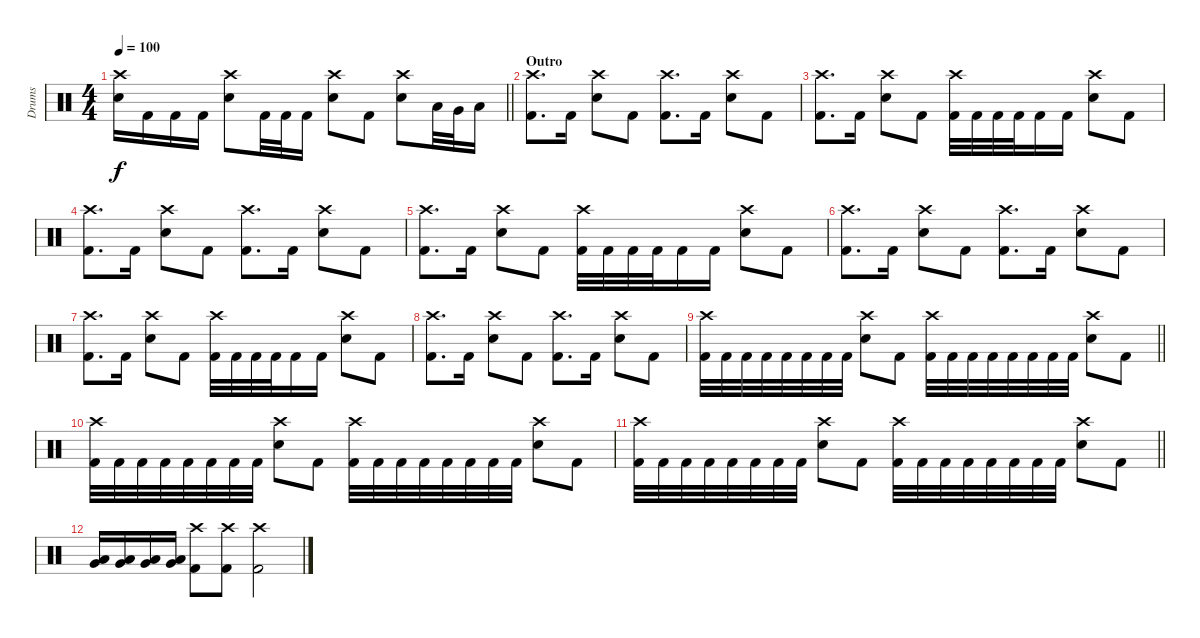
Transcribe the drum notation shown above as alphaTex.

\track ("Drums" "Drums") {instrument percussion}
\staff {score}
\articulation defaults
\ts (4 4)
\tempo 100
\clef neutral
\barLineRight lightlight
\ks c
("Crash high (hit)" "Snare (hit) 2").16{dy f} "Kick (hit) 2".16 "Kick (hit) 2".16 "Kick (hit) 2".16 ("Crash high (hit)" "Snare (hit) 2").8 "Kick (hit) 2".32 "Kick (hit) 2".32 "Kick (hit) 2".16 ("Crash high (hit)" "Snare (hit) 2").8 "Kick (hit) 2".8 ("Crash high (hit)" "Snare (hit) 2").8 "Low Tom (hit)".32 "Very Low Tom (hit)".32 "Low Floor Tom (hit)".16 |
\section ("" "Outro")
("Crash high (hit)" "Kick (hit) 2").8{d} "Kick (hit) 2".16 ("Crash high (hit)" "Snare (hit) 2").8 "Kick (hit) 2".8 ("Crash high (hit)" "Kick (hit) 2").8{d} "Kick (hit) 2".16 ("Crash high (hit)" "Snare (hit) 2").8 "Kick (hit) 2".8 |
("Crash high (hit)" "Kick (hit) 2").8{d} "Kick (hit) 2".16 ("Crash high (hit)" "Snare (hit) 2").8 "Kick (hit) 2".8 ("Crash high (hit)" "Kick (hit) 2").32 "Kick (hit) 2".32 "Kick (hit) 2".32 "Kick (hit) 2".32 "Kick (hit) 2".16 "Kick (hit) 2".16 ("Crash high (hit)" "Snare (hit) 2").8 "Kick (hit) 2".8 |
("Crash high (hit)" "Kick (hit) 2").8{d} "Kick (hit) 2".16 ("Crash high (hit)" "Snare (hit) 2").8 "Kick (hit) 2".8 ("Crash high (hit)" "Kick (hit) 2").8{d} "Kick (hit) 2".16 ("Crash high (hit)" "Snare (hit) 2").8 "Kick (hit) 2".8 |
("Crash high (hit)" "Kick (hit) 2").8{d} "Kick (hit) 2".16 ("Crash high (hit)" "Snare (hit) 2").8 "Kick (hit) 2".8 ("Crash high (hit)" "Kick (hit) 2").32 "Kick (hit) 2".32 "Kick (hit) 2".32 "Kick (hit) 2".32 "Kick (hit) 2".16 "Kick (hit) 2".16 ("Crash high (hit)" "Snare (hit) 2").8 "Kick (hit) 2".8 |
("Crash high (hit)" "Kick (hit) 2").8{d} "Kick (hit) 2".16 ("Crash high (hit)" "Snare (hit) 2").8 "Kick (hit) 2".8 ("Crash high (hit)" "Kick (hit) 2").8{d} "Kick (hit) 2".16 ("Crash high (hit)" "Snare (hit) 2").8 "Kick (hit) 2".8 |
("Crash high (hit)" "Kick (hit) 2").8{d} "Kick (hit) 2".16 ("Crash high (hit)" "Snare (hit) 2").8 "Kick (hit) 2".8 ("Crash high (hit)" "Kick (hit) 2").32 "Kick (hit) 2".32 "Kick (hit) 2".32 "Kick (hit) 2".32 "Kick (hit) 2".16 "Kick (hit) 2".16 ("Crash high (hit)" "Snare (hit) 2").8 "Kick (hit) 2".8 |
("Crash high (hit)" "Kick (hit) 2").8{d} "Kick (hit) 2".16 ("Crash high (hit)" "Snare (hit) 2").8 "Kick (hit) 2".8 ("Crash high (hit)" "Kick (hit) 2").8{d} "Kick (hit) 2".16 ("Crash high (hit)" "Snare (hit) 2").8 "Kick (hit) 2".8 |
\barLineRight lightlight
("Crash high (hit)" "Kick (hit) 2").32 "Kick (hit) 2".32 "Kick (hit) 2".32 "Kick (hit) 2".32 "Kick (hit) 2".32 "Kick (hit) 2".32 "Kick (hit) 2".32 "Kick (hit) 2".32 ("Crash high (hit)" "Snare (hit) 2").8 "Kick (hit) 2".8 ("Crash high (hit)" "Kick (hit) 2").32 "Kick (hit) 2".32 "Kick (hit) 2".32 "Kick (hit) 2".32 "Kick (hit) 2".32 "Kick (hit) 2".32 "Kick (hit) 2".32 "Kick (hit) 2".32 ("Crash high (hit)" "Snare (hit) 2").8 "Kick (hit) 2".8 |
("Crash high (hit)" "Kick (hit) 2").32 "Kick (hit) 2".32 "Kick (hit) 2".32 "Kick (hit) 2".32 "Kick (hit) 2".32 "Kick (hit) 2".32 "Kick (hit) 2".32 "Kick (hit) 2".32 ("Crash high (hit)" "Snare (hit) 2").8 "Kick (hit) 2".8 ("Crash high (hit)" "Kick (hit) 2").32 "Kick (hit) 2".32 "Kick (hit) 2".32 "Kick (hit) 2".32 "Kick (hit) 2".32 "Kick (hit) 2".32 "Kick (hit) 2".32 "Kick (hit) 2".32 ("Crash high (hit)" "Snare (hit) 2").8 "Kick (hit) 2".8 |
\barLineRight lightlight
("Crash high (hit)" "Kick (hit) 2").32 "Kick (hit) 2".32 "Kick (hit) 2".32 "Kick (hit) 2".32 "Kick (hit) 2".32 "Kick (hit) 2".32 "Kick (hit) 2".32 "Kick (hit) 2".32 ("Crash high (hit)" "Snare (hit) 2").8 "Kick (hit) 2".8 ("Crash high (hit)" "Kick (hit) 2").32 "Kick (hit) 2".32 "Kick (hit) 2".32 "Kick (hit) 2".32 "Kick (hit) 2".32 "Kick (hit) 2".32 "Kick (hit) 2".32 "Kick (hit) 2".32 ("Crash high (hit)" "Snare (hit) 2").8 "Kick (hit) 2".8 |
("Low Tom (hit)" "Very Low Tom (hit)").16 ("Low Tom (hit)" "Very Low Tom (hit)").16 ("Low Tom (hit)" "Very Low Tom (hit)").16 ("Low Tom (hit)" "Very Low Tom (hit)").16 ("Crash high (hit)" "Kick (hit) 2").8 ("Crash high (hit)" "Kick (hit) 2").8 ("Crash high (hit)" "Kick (hit) 2").2
